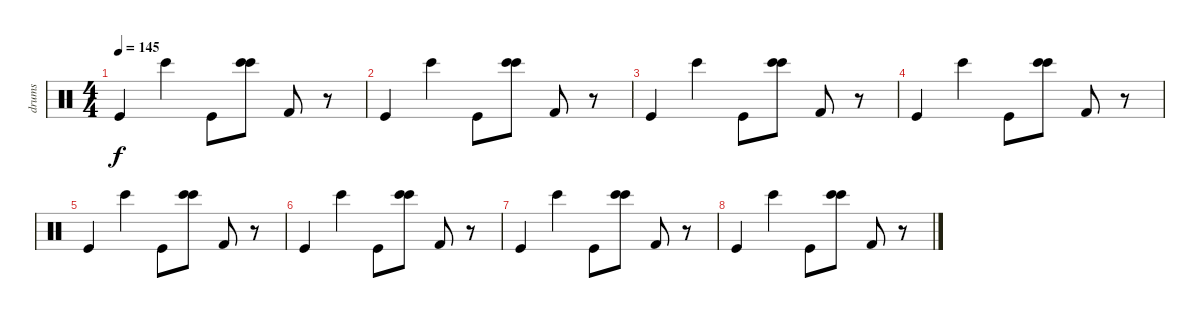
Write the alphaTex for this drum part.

\track (" drums" " drums") {instrument percussion}
\staff {score}
\articulation defaults
\ts (4 4)
\tempo 145
\clef neutral
\ks c "Kick (hit)".4{dy f} "Bongo High (hit)".4 "Kick (hit)".8
("Bongo High (hit)" "Bongo High (hit)").8 "Kick (hit) 2".8 r.8 |
"Kick (hit)".4 "Bongo High (hit)".4 "Kick (hit)".8 ("Bongo High (hit)" "Bongo High (hit)").8 "Kick (hit) 2".8 r.8 |
"Kick (hit)".4 "Bongo High (hit)".4 "Kick (hit)".8 ("Bongo High (hit)" "Bongo High (hit)").8 "Kick (hit) 2".8 r.8 |
"Kick (hit)".4 "Bongo High (hit)".4 "Kick (hit)".8 ("Bongo High (hit)" "Bongo High (hit)").8 "Kick (hit) 2".8 r.8 |
"Kick (hit)".4 "Bongo High (hit)".4 "Kick (hit)".8 ("Bongo High (hit)" "Bongo High (hit)").8 "Kick (hit) 2".8 r.8 |
"Kick (hit)".4 "Bongo High (hit)".4 "Kick (hit)".8 ("Bongo High (hit)" "Bongo High (hit)").8 "Kick (hit) 2".8 r.8 |
"Kick (hit)".4 "Bongo High (hit)".4 "Kick (hit)".8 ("Bongo High (hit)" "Bongo High (hit)").8 "Kick (hit) 2".8 r.8 |
"Kick (hit)".4 "Bongo High (hit)".4 "Kick (hit)".8 ("Bongo High (hit)" "Bongo High (hit)").8 "Kick (hit) 2".8 r.8
